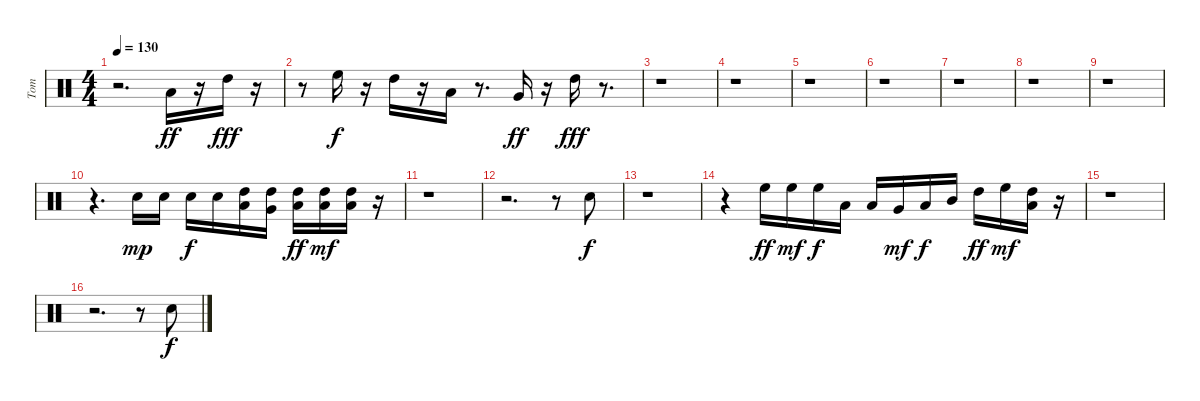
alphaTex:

\track ("Tom" "Tom") {instrument percussion}
\staff {score}
\articulation defaults
\ts (4 4)
\tempo 130
\clef neutral
\ks c
r.2{d dy fff} "Low Tom (hit)".16{dy ff} r.16 "High Tom (hit)".16{dy fff} r.16 |
r.8 "High Floor Tom (hit)".16{dy f} r.16 "High Tom (hit)".16 r.16 "Low Tom (hit)".16 r.8{d} "Very Low Tom (hit)".16{dy ff} r.16 "High Tom (hit)".16{dy fff} r.8{d} |
r.1 |
r.1 |
r.1 |
r.1 |
r.1 |
r.1 |
r.1 |
r.4{d} "Electric Snare (hit)".16{dy mp} "Electric Snare (hit)".16 "Electric Snare (hit)".16{dy f} "Electric Snare (hit)".16 ("Low Tom (hit)" "High Tom (hit)").16 ("Very Low Tom (hit)" "High Tom (hit)").16 ("High Tom (hit)" "Low Floor Tom (hit)").16{dy ff} ("Low Tom (hit)" "High Tom (hit)").16{dy mf} ("High Tom (hit)" "Low Floor Tom (hit)").16 r.16 |
r.1 |
r.2{d} r.8 "Electric Snare (hit)".8{dy f} |
r.1 |
r.4 "High Floor Tom (hit)".16{dy ff} "High Floor Tom (hit)".16{dy mf} "High Floor Tom (hit)".16{dy f} "Low Floor Tom (hit)".16 "Low Floor Tom (hit)".16 "Very Low Tom (hit)".16{dy mf} "Low Tom (hit)".16{dy f} "Mid Tom (hit)".16 "High Tom (hit)".16{dy ff} "High Floor Tom (hit)".16{dy mf} ("High Tom (hit)" "Low Floor Tom (hit)").16 r.16 |
r.1 |
r.2{d} r.8 "Electric Snare (hit)".8{dy f}
